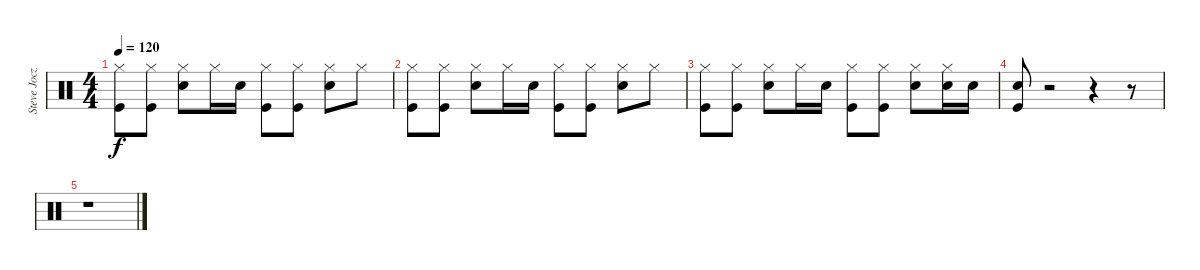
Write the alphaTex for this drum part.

\track ("Steve Jocz (STEVO)" "Steve Jocz") {instrument percussion}
\staff {score}
\articulation defaults
\ts (4 4)
\tempo 120
\clef neutral
\ks c
("Hi-Hat (closed)" "Kick (hit)").8{dy f} ("Hi-Hat (closed)" "Kick (hit)").8 ("Hi-Hat (closed)" "Snare (hit) 2").8 "Hi-Hat (closed)".16 "Snare (hit) 2".16 ("Hi-Hat (closed)" "Kick (hit)").8 ("Hi-Hat (closed)" "Kick (hit)").8 ("Hi-Hat (closed)" "Snare (hit) 2").8 "Hi-Hat (closed)".8 |
("Hi-Hat (closed)" "Kick (hit)").8 ("Hi-Hat (closed)" "Kick (hit)").8 ("Hi-Hat (closed)" "Snare (hit) 2").8 "Hi-Hat (closed)".16 "Snare (hit) 2".16 ("Hi-Hat (closed)" "Kick (hit)").8 ("Hi-Hat (closed)" "Kick (hit)").8 ("Hi-Hat (closed)" "Snare (hit) 2").8 "Hi-Hat (closed)".8 |
("Hi-Hat (closed)" "Kick (hit)").8 ("Hi-Hat (closed)" "Kick (hit)").8 ("Hi-Hat (closed)" "Snare (hit) 2").8 "Hi-Hat (closed)".16 "Snare (hit) 2".16 ("Hi-Hat (closed)" "Kick (hit)").8 ("Hi-Hat (closed)" "Kick (hit)").8 ("Hi-Hat (closed)" "Snare (hit) 2").8 ("Hi-Hat (closed)" "Snare (hit) 2").16 "Snare (hit) 2".16 |
("Snare (hit) 2" "Kick (hit)").8 r.2 r.4 r.8 |
r.1
